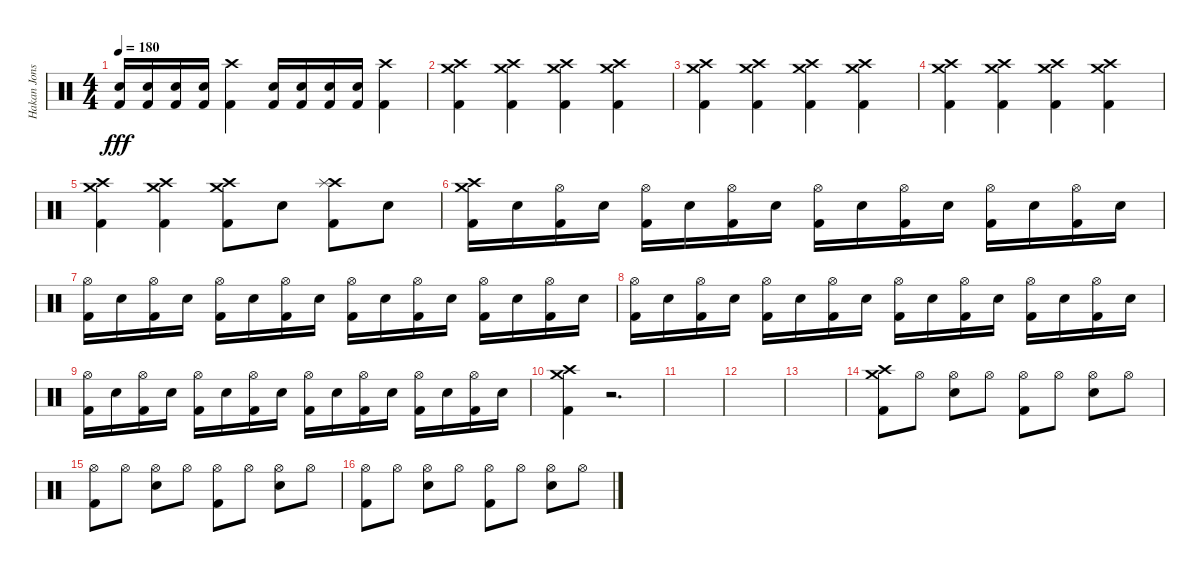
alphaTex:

\track ("Hakan Jonsson" "Hakan Jons") {instrument percussion}
\staff {score}
\articulation defaults
\ts (4 4)
\tempo 180
\clef neutral
\ks c
("Electric Snare (hit)" "Kick (hit) 2").16{dy fff} ("Electric Snare (hit)" "Kick (hit) 2").16 ("Electric Snare (hit)" "Kick (hit) 2").16 ("Electric Snare (hit)" "Kick (hit) 2").16 ("Crash high (hit)" "Kick (hit) 2").4 ("Electric Snare (hit)" "Kick (hit) 2").16 ("Electric Snare (hit)" "Kick (hit) 2").16 ("Electric Snare (hit)" "Kick (hit) 2").16 ("Electric Snare (hit)" "Kick (hit) 2").16 ("Crash high (hit)" "Kick (hit) 2").4 |
("Crash high (hit)" "Crash medium (hit)" "Kick (hit) 2").4 ("Crash high (hit)" "Crash medium (hit)" "Kick (hit) 2").4 ("Crash high (hit)" "Crash medium (hit)" "Kick (hit) 2").4 ("Crash high (hit)" "Crash medium (hit)" "Kick (hit) 2").4 |
("Crash high (hit)" "Crash medium (hit)" "Kick (hit) 2").4 ("Crash high (hit)" "Crash medium (hit)" "Kick (hit) 2").4 ("Crash high (hit)" "Crash medium (hit)" "Kick (hit) 2").4 ("Crash high (hit)" "Crash medium (hit)" "Kick (hit) 2").4 |
("Crash high (hit)" "Crash medium (hit)" "Kick (hit) 2").4 ("Crash high (hit)" "Crash medium (hit)" "Kick (hit) 2").4 ("Crash high (hit)" "Crash medium (hit)" "Kick (hit) 2").4 ("Crash high (hit)" "Crash medium (hit)" "Kick (hit) 2").4 |
("Crash high (hit)" "Crash medium (hit)" "Kick (hit) 2").4 ("Crash high (hit)" "Crash medium (hit)" "Kick (hit) 2").4 ("Crash high (hit)" "Crash medium (hit)" "Kick (hit) 2").8 "Electric Snare (hit)".8 ("Crash high (hit)" "Splash (hit)" "Kick (hit) 2").8 "Electric Snare (hit)".8 |
("Crash high (hit)" "Crash medium (hit)" "Kick (hit) 2").16 "Electric Snare (hit)".16 ("Hi-Hat (open)" "Kick (hit) 2").16 "Electric Snare (hit)".16 ("Hi-Hat (open)" "Kick (hit) 2").16 "Electric Snare (hit)".16 ("Hi-Hat (open)" "Kick (hit) 2").16 "Electric Snare (hit)".16 ("Hi-Hat (open)" "Kick (hit) 2").16 "Electric Snare (hit)".16 ("Hi-Hat (open)" "Kick (hit) 2").16 "Electric Snare (hit)".16 ("Hi-Hat (open)" "Kick (hit) 2").16 "Electric Snare (hit)".16 ("Hi-Hat (open)" "Kick (hit) 2").16 "Electric Snare (hit)".16 |
("Hi-Hat (open)" "Kick (hit) 2").16 "Electric Snare (hit)".16 ("Hi-Hat (open)" "Kick (hit) 2").16 "Electric Snare (hit)".16 ("Hi-Hat (open)" "Kick (hit) 2").16 "Electric Snare (hit)".16 ("Hi-Hat (open)" "Kick (hit) 2").16 "Electric Snare (hit)".16 ("Hi-Hat (open)" "Kick (hit) 2").16 "Electric Snare (hit)".16 ("Hi-Hat (open)" "Kick (hit) 2").16 "Electric Snare (hit)".16 ("Hi-Hat (open)" "Kick (hit) 2").16 "Electric Snare (hit)".16 ("Hi-Hat (open)" "Kick (hit) 2").16 "Electric Snare (hit)".16 |
("Hi-Hat (open)" "Kick (hit) 2").16 "Electric Snare (hit)".16 ("Hi-Hat (open)" "Kick (hit) 2").16 "Electric Snare (hit)".16 ("Hi-Hat (open)" "Kick (hit) 2").16 "Electric Snare (hit)".16 ("Hi-Hat (open)" "Kick (hit) 2").16 "Electric Snare (hit)".16 ("Hi-Hat (open)" "Kick (hit) 2").16 "Electric Snare (hit)".16 ("Hi-Hat (open)" "Kick (hit) 2").16 "Electric Snare (hit)".16 ("Hi-Hat (open)" "Kick (hit) 2").16 "Electric Snare (hit)".16 ("Hi-Hat (open)" "Kick (hit) 2").16 "Electric Snare (hit)".16 |
("Hi-Hat (open)" "Kick (hit) 2").16 "Electric Snare (hit)".16 ("Hi-Hat (open)" "Kick (hit) 2").16 "Electric Snare (hit)".16 ("Hi-Hat (open)" "Kick (hit) 2").16 "Electric Snare (hit)".16 ("Hi-Hat (open)" "Kick (hit) 2").16 "Electric Snare (hit)".16 ("Hi-Hat (open)" "Kick (hit) 2").16 "Electric Snare (hit)".16 ("Hi-Hat (open)" "Kick (hit) 2").16 "Electric Snare (hit)".16 ("Hi-Hat (open)" "Kick (hit) 2").16 "Electric Snare (hit)".16 ("Hi-Hat (open)" "Kick (hit) 2").16 "Electric Snare (hit)".16 |
("Crash high (hit)" "Crash medium (hit)" "Kick (hit) 2").4 r.2{d} |
|
|
|
("Crash high (hit)" "Crash medium (hit)" "Kick (hit) 2").8 "Hi-Hat (open)".8 ("Hi-Hat (open)" "Electric Snare (hit)").8 "Hi-Hat (open)".8 ("Hi-Hat (open)" "Kick (hit) 2").8 "Hi-Hat (open)".8 ("Hi-Hat (open)" "Electric Snare (hit)").8 "Hi-Hat (open)".8 |
("Hi-Hat (open)" "Kick (hit) 2").8 "Hi-Hat (open)".8 ("Hi-Hat (open)" "Electric Snare (hit)").8 "Hi-Hat (open)".8 ("Hi-Hat (open)" "Kick (hit) 2").8 "Hi-Hat (open)".8 ("Hi-Hat (open)" "Electric Snare (hit)").8 "Hi-Hat (open)".8 |
("Hi-Hat (open)" "Kick (hit) 2").8 "Hi-Hat (open)".8 ("Hi-Hat (open)" "Electric Snare (hit)").8 "Hi-Hat (open)".8 ("Hi-Hat (open)" "Kick (hit) 2").8 "Hi-Hat (open)".8 ("Hi-Hat (open)" "Electric Snare (hit)").8 "Hi-Hat (open)".8
